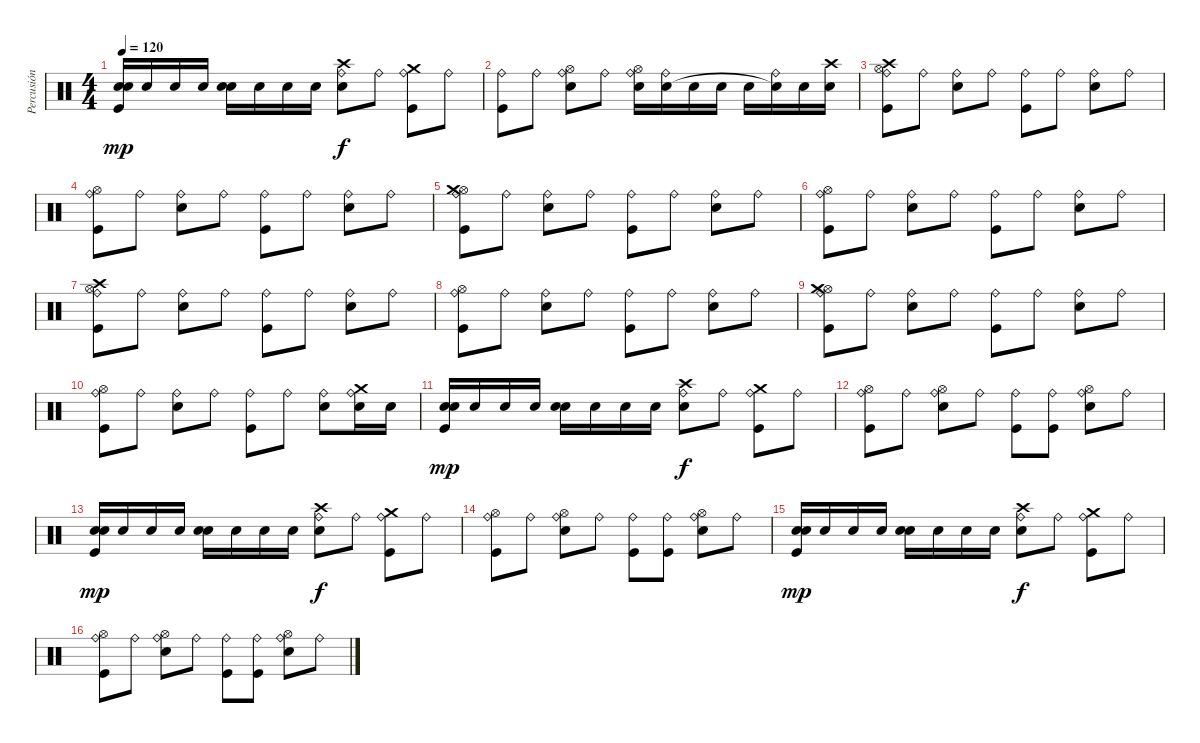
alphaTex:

\track ("Percusión" "Percusión") {instrument percussion}
\staff {score}
\articulation defaults
\ts (4 4)
\tempo 120
\clef neutral
\ks c
("Snare (hit) 2" "Electric Snare (hit)" "Kick (hit)").16{dy mp} "Snare (hit) 2".16 "Snare (hit) 2".16 "Snare (hit) 2".16 ("Snare (hit) 2" "Electric Snare (hit)").16 "Snare (hit) 2".16 "Snare (hit) 2".16 "Snare (hit) 2".16 ("Ride (bell)" "Snare (hit) 2" "Crash high (hit)").8{dy f} "Ride (bell)".8 ("Ride (bell)" "Crash medium (hit)" "Kick (hit)").8 "Ride (bell)".8 |
("Ride (bell)" "Kick (hit)").8 "Ride (bell)".8 ("Ride (bell)" "Snare (hit) 2" "Hi-Hat (open)").8 "Ride (bell)".8 ("Ride (bell)" "Snare (hit) 2" "Hi-Hat (open)").16 ("Ride (bell)" "Snare (hit) 2").16 "Snare (hit) 2".16 "Snare (hit) 2".16 "Snare (hit) 2".16 ("Ride (bell)" "Snare (hit) 2"{t}).16 "Snare (hit) 2".16 ("Crash high (hit)" "Snare (hit) 2").16 |
("Ride (bell)" "Hi-Hat (open)" "Crash high (hit)" "Kick (hit)").8 "Ride (bell)".8 ("Ride (bell)" "Snare (hit) 2").8 "Ride (bell)".8 ("Ride (bell)" "Kick (hit)").8 "Ride (bell)".8 ("Ride (bell)" "Snare (hit) 2").8 "Ride (bell)".8 |
("Ride (bell)" "Hi-Hat (open)" "Kick (hit)").8 "Ride (bell)".8 ("Ride (bell)" "Snare (hit) 2").8 "Ride (bell)".8 ("Ride (bell)" "Kick (hit)").8 "Ride (bell)".8 ("Ride (bell)" "Snare (hit) 2").8 "Ride (bell)".8 |
("Ride (bell)" "Hi-Hat (open)" "Crash medium (hit)" "Kick (hit)").8 "Ride (bell)".8 ("Ride (bell)" "Snare (hit) 2").8 "Ride (bell)".8 ("Ride (bell)" "Kick (hit)").8 "Ride (bell)".8 ("Ride (bell)" "Snare (hit) 2").8 "Ride (bell)".8 |
("Ride (bell)" "Hi-Hat (open)" "Kick (hit)").8 "Ride (bell)".8 ("Ride (bell)" "Snare (hit) 2").8 "Ride (bell)".8 ("Ride (bell)" "Kick (hit)").8 "Ride (bell)".8 ("Ride (bell)" "Snare (hit) 2").8 "Ride (bell)".8 |
("Ride (bell)" "Hi-Hat (open)" "Crash high (hit)" "Kick (hit)").8 "Ride (bell)".8 ("Ride (bell)" "Snare (hit) 2").8 "Ride (bell)".8 ("Ride (bell)" "Kick (hit)").8 "Ride (bell)".8 ("Ride (bell)" "Snare (hit) 2").8 "Ride (bell)".8 |
("Ride (bell)" "Hi-Hat (open)" "Kick (hit)").8 "Ride (bell)".8 ("Ride (bell)" "Snare (hit) 2").8 "Ride (bell)".8 ("Ride (bell)" "Kick (hit)").8 "Ride (bell)".8 ("Ride (bell)" "Snare (hit) 2").8 "Ride (bell)".8 |
("Ride (bell)" "Hi-Hat (open)" "Crash medium (hit)" "Kick (hit)").8 "Ride (bell)".8 ("Ride (bell)" "Snare (hit) 2").8 "Ride (bell)".8 ("Ride (bell)" "Kick (hit)").8 "Ride (bell)".8 ("Ride (bell)" "Snare (hit) 2").8 "Ride (bell)".8 |
("Ride (bell)" "Hi-Hat (open)" "Kick (hit)").8 "Ride (bell)".8 ("Ride (bell)" "Snare (hit) 2").8 "Ride (bell)".8 ("Ride (bell)" "Kick (hit)").8 "Ride (bell)".8 ("Ride (bell)" "Snare (hit) 2").8 ("Ride (bell)" "Crash medium (hit)" "Snare (hit) 2").16 "Snare (hit) 2".16 |
("Snare (hit) 2" "Electric Snare (hit)" "Kick (hit)").16{dy mp} "Snare (hit) 2".16 "Snare (hit) 2".16 "Snare (hit) 2".16 ("Snare (hit) 2" "Electric Snare (hit)").16 "Snare (hit) 2".16 "Snare (hit) 2".16 "Snare (hit) 2".16 ("Ride (bell)" "Snare (hit) 2" "Crash high (hit)").8{dy f} "Ride (bell)".8 ("Ride (bell)" "Crash medium (hit)" "Kick (hit)").8 "Ride (bell)".8 |
("Ride (bell)" "Hi-Hat (open)" "Kick (hit)").8 "Ride (bell)".8 ("Ride (bell)" "Hi-Hat (open)" "Snare (hit) 2").8 "Ride (bell)".8 ("Ride (bell)" "Kick (hit)").8 ("Ride (bell)" "Kick (hit)").8 ("Ride (bell)" "Hi-Hat (open)" "Snare (hit) 2").8 "Ride (bell)".8 |
("Snare (hit) 2" "Electric Snare (hit)" "Kick (hit)").16{dy mp} "Snare (hit) 2".16 "Snare (hit) 2".16 "Snare (hit) 2".16 ("Snare (hit) 2" "Electric Snare (hit)").16 "Snare (hit) 2".16 "Snare (hit) 2".16 "Snare (hit) 2".16 ("Ride (bell)" "Snare (hit) 2" "Crash high (hit)").8{dy f} "Ride (bell)".8 ("Ride (bell)" "Crash medium (hit)" "Kick (hit)").8 "Ride (bell)".8 |
("Ride (bell)" "Hi-Hat (open)" "Kick (hit)").8 "Ride (bell)".8 ("Ride (bell)" "Hi-Hat (open)" "Snare (hit) 2").8 "Ride (bell)".8 ("Ride (bell)" "Kick (hit)").8 ("Ride (bell)" "Kick (hit)").8 ("Ride (bell)" "Hi-Hat (open)" "Snare (hit) 2").8 "Ride (bell)".8 |
("Snare (hit) 2" "Electric Snare (hit)" "Kick (hit)").16{dy mp} "Snare (hit) 2".16 "Snare (hit) 2".16 "Snare (hit) 2".16 ("Snare (hit) 2" "Electric Snare (hit)").16 "Snare (hit) 2".16 "Snare (hit) 2".16 "Snare (hit) 2".16 ("Ride (bell)" "Snare (hit) 2" "Crash high (hit)").8{dy f} "Ride (bell)".8 ("Ride (bell)" "Crash medium (hit)" "Kick (hit)").8 "Ride (bell)".8 |
("Ride (bell)" "Hi-Hat (open)" "Kick (hit)").8 "Ride (bell)".8 ("Ride (bell)" "Hi-Hat (open)" "Snare (hit) 2").8 "Ride (bell)".8 ("Ride (bell)" "Kick (hit)").8 ("Ride (bell)" "Kick (hit)").8 ("Ride (bell)" "Hi-Hat (open)" "Snare (hit) 2").8 "Ride (bell)".8
